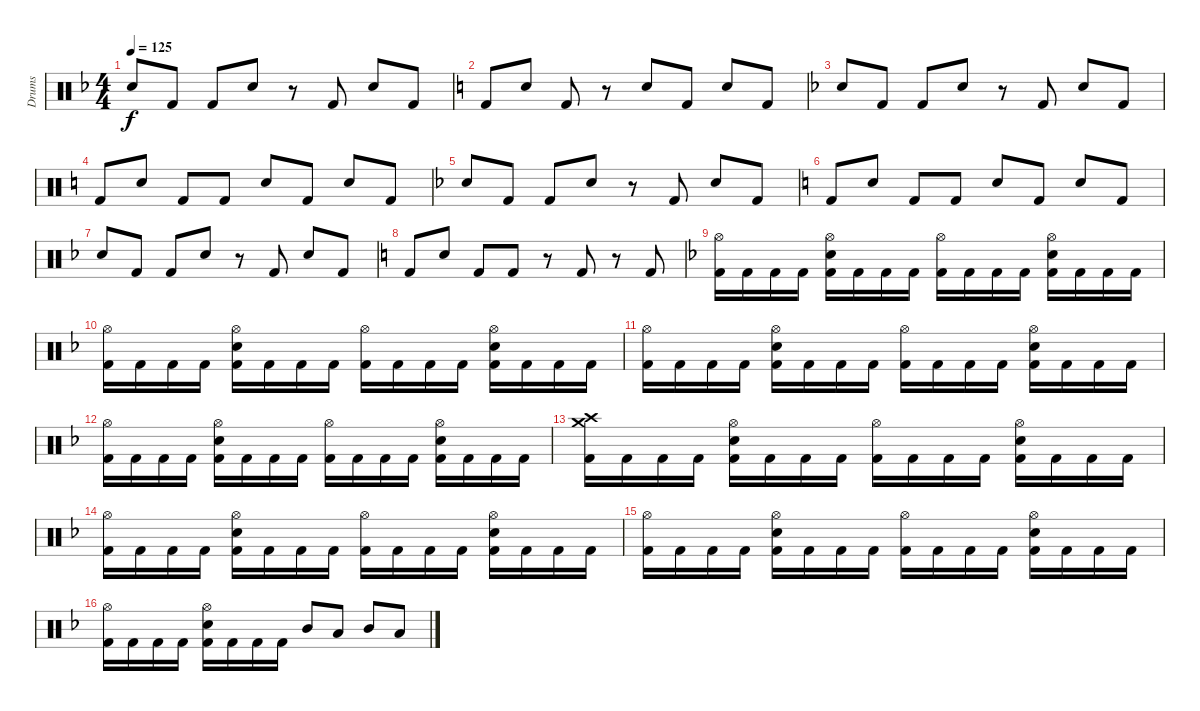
\track ("Drums" "Drums") {instrument percussion}
\staff {score}
\articulation defaults
\ts (4 4)
\tempo 125
\clef neutral
\ks f "Snare (hit) 2".8{dy f} "Kick (hit) 2".8 "Kick (hit) 2".8 "Snare (hit) 2".8
r.8 "Kick (hit) 2".8 "Snare (hit) 2".8 "Kick (hit) 2".8 |
\ks c "Kick (hit) 2".8 "Snare (hit) 2".8 "Kick (hit) 2".8
r.8 "Snare (hit) 2".8 "Kick (hit) 2".8 "Snare (hit) 2".8 "Kick (hit) 2".8 |
\ks f "Snare (hit) 2".8 "Kick (hit) 2".8 "Kick (hit) 2".8 "Snare (hit) 2".8
r.8 "Kick (hit) 2".8 "Snare (hit) 2".8 "Kick (hit) 2".8 |
\ks c "Kick (hit) 2".8 "Snare (hit) 2".8 "Kick (hit) 2".8 "Kick (hit) 2".8 "Snare (hit) 2".8 "Kick (hit) 2".8 "Snare (hit) 2".8 "Kick (hit) 2".8
|
\ks f "Snare (hit) 2".8 "Kick (hit) 2".8 "Kick (hit) 2".8 "Snare (hit) 2".8
r.8 "Kick (hit) 2".8 "Snare (hit) 2".8 "Kick (hit) 2".8 |
\ks c "Kick (hit) 2".8 "Snare (hit) 2".8 "Kick (hit) 2".8 "Kick (hit) 2".8 "Snare (hit) 2".8 "Kick (hit) 2".8 "Snare (hit) 2".8 "Kick (hit) 2".8
|
\ks f "Snare (hit) 2".8 "Kick (hit) 2".8 "Kick (hit) 2".8 "Snare (hit) 2".8
r.8 "Kick (hit) 2".8 "Snare (hit) 2".8 "Kick (hit) 2".8 |
\ks c "Kick (hit) 2".8 "Snare (hit) 2".8 "Kick (hit) 2".8 "Kick (hit) 2".8
r.8 "Kick (hit) 2".8 r.8 "Kick (hit) 2".8 |
\ks f
("Hi-Hat (open)" "Kick (hit) 2").16 "Kick (hit) 2".16 "Kick (hit) 2".16 "Kick (hit) 2".16 ("Hi-Hat (open)" "Snare (hit) 2" "Kick (hit) 2").16 "Kick (hit) 2".16 "Kick (hit) 2".16 "Kick (hit) 2".16 ("Hi-Hat (open)" "Kick (hit) 2").16 "Kick (hit) 2".16 "Kick (hit) 2".16 "Kick (hit) 2".16 ("Hi-Hat (open)" "Snare (hit) 2" "Kick (hit) 2").16 "Kick (hit) 2".16 "Kick (hit) 2".16 "Kick (hit) 2".16 |
("Hi-Hat (open)" "Kick (hit) 2").16 "Kick (hit) 2".16 "Kick (hit) 2".16 "Kick (hit) 2".16 ("Hi-Hat (open)" "Snare (hit) 2" "Kick (hit) 2").16 "Kick (hit) 2".16 "Kick (hit) 2".16 "Kick (hit) 2".16 ("Hi-Hat (open)" "Kick (hit) 2").16 "Kick (hit) 2".16 "Kick (hit) 2".16 "Kick (hit) 2".16 ("Hi-Hat (open)" "Snare (hit) 2" "Kick (hit) 2").16 "Kick (hit) 2".16 "Kick (hit) 2".16 "Kick (hit) 2".16 |
("Hi-Hat (open)" "Kick (hit) 2").16 "Kick (hit) 2".16 "Kick (hit) 2".16 "Kick (hit) 2".16 ("Hi-Hat (open)" "Snare (hit) 2" "Kick (hit) 2").16 "Kick (hit) 2".16 "Kick (hit) 2".16 "Kick (hit) 2".16 ("Hi-Hat (open)" "Kick (hit) 2").16 "Kick (hit) 2".16 "Kick (hit) 2".16 "Kick (hit) 2".16 ("Hi-Hat (open)" "Snare (hit) 2" "Kick (hit) 2").16 "Kick (hit) 2".16 "Kick (hit) 2".16 "Kick (hit) 2".16 |
("Hi-Hat (open)" "Kick (hit) 2").16 "Kick (hit) 2".16 "Kick (hit) 2".16 "Kick (hit) 2".16 ("Hi-Hat (open)" "Snare (hit) 2" "Kick (hit) 2").16 "Kick (hit) 2".16 "Kick (hit) 2".16 "Kick (hit) 2".16 ("Hi-Hat (open)" "Kick (hit) 2").16 "Kick (hit) 2".16 "Kick (hit) 2".16 "Kick (hit) 2".16 ("Hi-Hat (open)" "Snare (hit) 2" "Kick (hit) 2").16 "Kick (hit) 2".16 "Kick (hit) 2".16 "Kick (hit) 2".16 |
("Crash medium (hit)" "Crash high (hit)" "Kick (hit) 2").16 "Kick (hit) 2".16 "Kick (hit) 2".16 "Kick (hit) 2".16 ("Hi-Hat (open)" "Snare (hit) 2" "Kick (hit) 2").16 "Kick (hit) 2".16 "Kick (hit) 2".16 "Kick (hit) 2".16 ("Hi-Hat (open)" "Kick (hit) 2").16 "Kick (hit) 2".16 "Kick (hit) 2".16 "Kick (hit) 2".16 ("Hi-Hat (open)" "Snare (hit) 2" "Kick (hit) 2").16 "Kick (hit) 2".16 "Kick (hit) 2".16 "Kick (hit) 2".16 |
("Hi-Hat (open)" "Kick (hit) 2").16 "Kick (hit) 2".16 "Kick (hit) 2".16 "Kick (hit) 2".16 ("Hi-Hat (open)" "Snare (hit) 2" "Kick (hit) 2").16 "Kick (hit) 2".16 "Kick (hit) 2".16 "Kick (hit) 2".16 ("Hi-Hat (open)" "Kick (hit) 2").16 "Kick (hit) 2".16 "Kick (hit) 2".16 "Kick (hit) 2".16 ("Hi-Hat (open)" "Snare (hit) 2" "Kick (hit) 2").16 "Kick (hit) 2".16 "Kick (hit) 2".16 "Kick (hit) 2".16 |
("Hi-Hat (open)" "Kick (hit) 2").16 "Kick (hit) 2".16 "Kick (hit) 2".16 "Kick (hit) 2".16 ("Hi-Hat (open)" "Snare (hit) 2" "Kick (hit) 2").16 "Kick (hit) 2".16 "Kick (hit) 2".16 "Kick (hit) 2".16 ("Hi-Hat (open)" "Kick (hit) 2").16 "Kick (hit) 2".16 "Kick (hit) 2".16 "Kick (hit) 2".16 ("Hi-Hat (open)" "Snare (hit) 2" "Kick (hit) 2").16 "Kick (hit) 2".16 "Kick (hit) 2".16 "Kick (hit) 2".16 |
("Hi-Hat (open)" "Kick (hit) 2").16 "Kick (hit) 2".16 "Kick (hit) 2".16 "Kick (hit) 2".16 ("Hi-Hat (open)" "Snare (hit) 2" "Kick (hit) 2").16 "Kick (hit) 2".16 "Kick (hit) 2".16 "Kick (hit) 2".16 "Mid Tom (hit)".8 "Low Tom (hit)".8 "Mid Tom (hit)".8 "Low Tom (hit)".8
